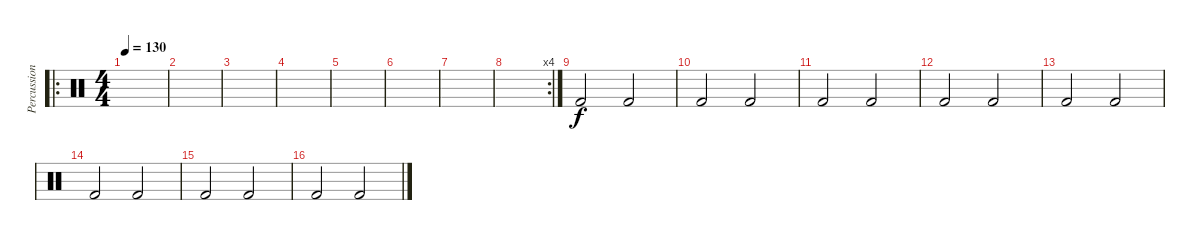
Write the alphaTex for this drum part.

\track ("Percussion" "Percussion") {instrument percussion}
\staff {score}
\articulation defaults
\ro
\ts (4 4)
\tempo 130
\clef neutral
\ks c
|
|
|
|
|
|
|
\rc 4
|
"Kick (hit) 2".2 "Kick (hit) 2".2 |
"Kick (hit) 2".2 "Kick (hit) 2".2 |
"Kick (hit) 2".2 "Kick (hit) 2".2 |
"Kick (hit) 2".2 "Kick (hit) 2".2 |
"Kick (hit) 2".2 "Kick (hit) 2".2 |
"Kick (hit) 2".2 "Kick (hit) 2".2 |
"Kick (hit) 2".2 "Kick (hit) 2".2 |
"Kick (hit) 2".2 "Kick (hit) 2".2
